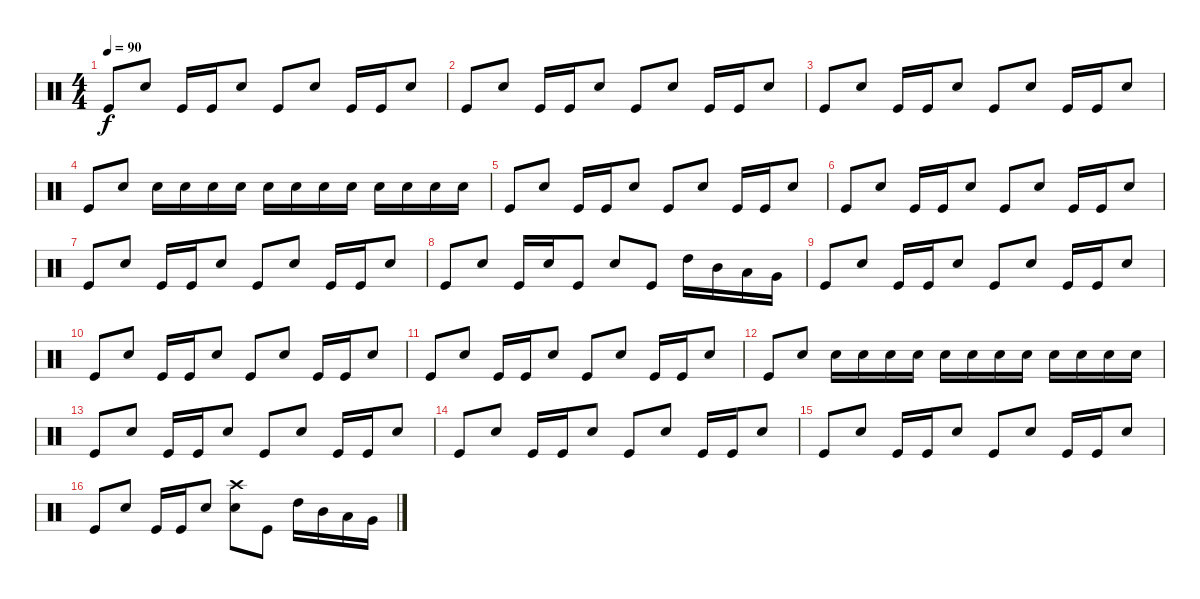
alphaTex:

\track "" {instrument percussion}
\staff {score}
\articulation defaults
\ts (4 4)
\tempo 90
\clef neutral
\ks c "Kick (hit)".8{dy f} "Snare (hit) 2".8 "Kick (hit)".16 "Kick (hit)".16 "Snare (hit) 2".8 "Kick (hit)".8 "Snare (hit) 2".8 "Kick (hit)".16 "Kick (hit)".16 "Snare (hit) 2".8
|
"Kick (hit)".8 "Snare (hit) 2".8 "Kick (hit)".16 "Kick (hit)".16 "Snare (hit) 2".8 "Kick (hit)".8 "Snare (hit) 2".8 "Kick (hit)".16 "Kick (hit)".16 "Snare (hit) 2".8 |
"Kick (hit)".8 "Snare (hit) 2".8 "Kick (hit)".16 "Kick (hit)".16 "Snare (hit) 2".8 "Kick (hit)".8 "Snare (hit) 2".8 "Kick (hit)".16 "Kick (hit)".16 "Snare (hit) 2".8 |
"Kick (hit)".8 "Snare (hit) 2".8 "Snare (hit) 2".16 "Snare (hit) 2".16 "Snare (hit) 2".16 "Snare (hit) 2".16 "Snare (hit) 2".16 "Snare (hit) 2".16 "Snare (hit) 2".16 "Snare (hit) 2".16 "Snare (hit) 2".16 "Snare (hit) 2".16 "Snare (hit) 2".16 "Snare (hit) 2".16 |
"Kick (hit)".8 "Snare (hit) 2".8 "Kick (hit)".16 "Kick (hit)".16 "Snare (hit) 2".8 "Kick (hit)".8 "Snare (hit) 2".8 "Kick (hit)".16 "Kick (hit)".16 "Snare (hit) 2".8 |
"Kick (hit)".8 "Snare (hit) 2".8 "Kick (hit)".16 "Kick (hit)".16 "Snare (hit) 2".8 "Kick (hit)".8 "Snare (hit) 2".8 "Kick (hit)".16 "Kick (hit)".16 "Snare (hit) 2".8 |
"Kick (hit)".8 "Snare (hit) 2".8 "Kick (hit)".16 "Kick (hit)".16 "Snare (hit) 2".8 "Kick (hit)".8 "Snare (hit) 2".8 "Kick (hit)".16 "Kick (hit)".16 "Snare (hit) 2".8 |
"Kick (hit)".8 "Snare (hit) 2".8 "Kick (hit)".16 "Snare (hit) 2".16 "Kick (hit)".8 "Snare (hit) 2".8 "Kick (hit)".8 "High Tom (hit)".16 "Mid Tom (hit)".16 "Low Tom (hit)".16 "Very Low Tom (hit)".16 |
"Kick (hit)".8 "Snare (hit) 2".8 "Kick (hit)".16 "Kick (hit)".16 "Snare (hit) 2".8 "Kick (hit)".8 "Snare (hit) 2".8 "Kick (hit)".16 "Kick (hit)".16 "Snare (hit) 2".8 |
"Kick (hit)".8 "Snare (hit) 2".8 "Kick (hit)".16 "Kick (hit)".16 "Snare (hit) 2".8 "Kick (hit)".8 "Snare (hit) 2".8 "Kick (hit)".16 "Kick (hit)".16 "Snare (hit) 2".8 |
"Kick (hit)".8 "Snare (hit) 2".8 "Kick (hit)".16 "Kick (hit)".16 "Snare (hit) 2".8 "Kick (hit)".8 "Snare (hit) 2".8 "Kick (hit)".16 "Kick (hit)".16 "Snare (hit) 2".8 |
"Kick (hit)".8 "Snare (hit) 2".8 "Snare (hit) 2".16 "Snare (hit) 2".16 "Snare (hit) 2".16 "Snare (hit) 2".16 "Snare (hit) 2".16 "Snare (hit) 2".16 "Snare (hit) 2".16 "Snare (hit) 2".16 "Snare (hit) 2".16 "Snare (hit) 2".16 "Snare (hit) 2".16 "Snare (hit) 2".16 |
"Kick (hit)".8 "Snare (hit) 2".8 "Kick (hit)".16 "Kick (hit)".16 "Snare (hit) 2".8 "Kick (hit)".8 "Snare (hit) 2".8 "Kick (hit)".16 "Kick (hit)".16 "Snare (hit) 2".8 |
"Kick (hit)".8 "Snare (hit) 2".8 "Kick (hit)".16 "Kick (hit)".16 "Snare (hit) 2".8 "Kick (hit)".8 "Snare (hit) 2".8 "Kick (hit)".16 "Kick (hit)".16 "Snare (hit) 2".8 |
"Kick (hit)".8 "Snare (hit) 2".8 "Kick (hit)".16 "Kick (hit)".16 "Snare (hit) 2".8 "Kick (hit)".8 "Snare (hit) 2".8 "Kick (hit)".16 "Kick (hit)".16 "Snare (hit) 2".8 |
"Kick (hit)".8 "Snare (hit) 2".8 "Kick (hit)".16 "Kick (hit)".16 "Snare (hit) 2".8 ("Snare (hit) 2" "Crash high (hit)").8 "Kick (hit)".8 "High Tom (hit)".16 "Mid Tom (hit)".16 "Low Tom (hit)".16 "Very Low Tom (hit)".16
